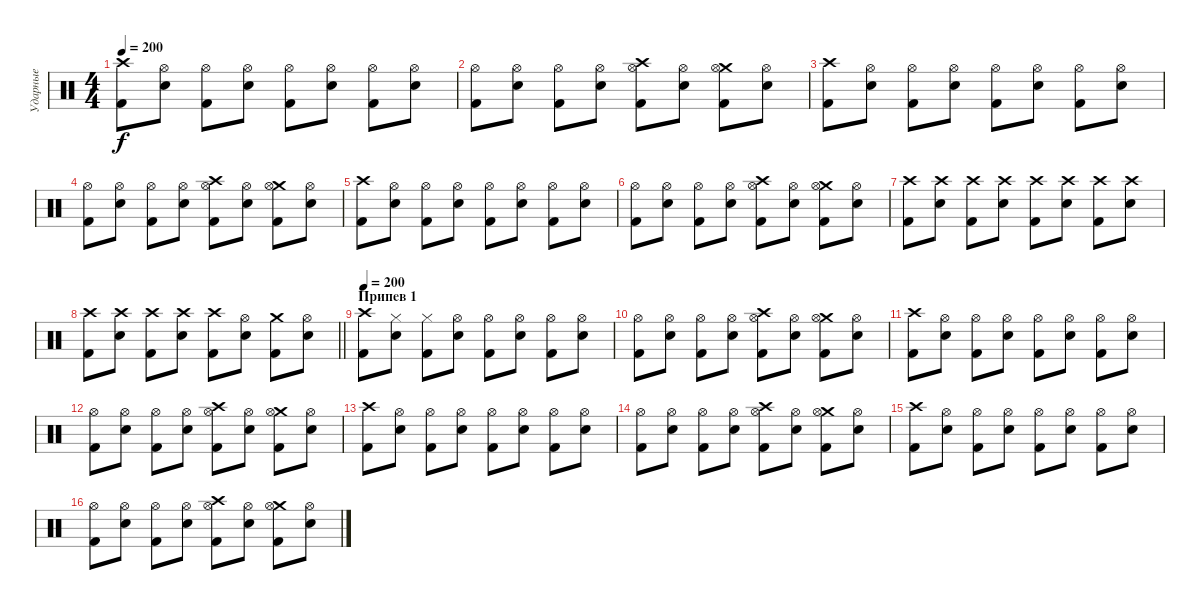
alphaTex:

\track ("Ударные" "Ударные") {instrument percussion}
\staff {score}
\articulation defaults
\ts (4 4)
\tempo 200
\clef neutral
\ks c
("Crash high (hit)" "Kick (hit) 2").8{dy f} ("Hi-Hat (open)" "Snare (hit) 2").8 ("Hi-Hat (open)" "Kick (hit) 2").8 ("Hi-Hat (open)" "Snare (hit) 2").8 ("Hi-Hat (open)" "Kick (hit) 2").8 ("Hi-Hat (open)" "Snare (hit) 2").8 ("Hi-Hat (open)" "Kick (hit) 2").8 ("Hi-Hat (open)" "Snare (hit) 2").8 |
("Hi-Hat (open)" "Kick (hit) 2").8 ("Hi-Hat (open)" "Snare (hit) 2").8 ("Hi-Hat (open)" "Kick (hit) 2").8 ("Hi-Hat (open)" "Snare (hit) 2").8 ("Crash high (hit)" "Hi-Hat (open)" "Kick (hit) 2").8 ("Hi-Hat (open)" "Snare (hit) 2").8 ("Crash medium (hit)" "Hi-Hat (open)" "Kick (hit) 2").8 ("Hi-Hat (open)" "Snare (hit) 2").8 |
("Crash high (hit)" "Kick (hit) 2").8 ("Hi-Hat (open)" "Snare (hit) 2").8 ("Hi-Hat (open)" "Kick (hit) 2").8 ("Hi-Hat (open)" "Snare (hit) 2").8 ("Hi-Hat (open)" "Kick (hit) 2").8 ("Hi-Hat (open)" "Snare (hit) 2").8 ("Hi-Hat (open)" "Kick (hit) 2").8 ("Hi-Hat (open)" "Snare (hit) 2").8 |
("Hi-Hat (open)" "Kick (hit) 2").8 ("Hi-Hat (open)" "Snare (hit) 2").8 ("Hi-Hat (open)" "Kick (hit) 2").8 ("Hi-Hat (open)" "Snare (hit) 2").8 ("Crash high (hit)" "Hi-Hat (open)" "Kick (hit) 2").8 ("Hi-Hat (open)" "Snare (hit) 2").8 ("Crash medium (hit)" "Hi-Hat (open)" "Kick (hit) 2").8 ("Hi-Hat (open)" "Snare (hit) 2").8 |
("Crash high (hit)" "Kick (hit) 2").8 ("Hi-Hat (open)" "Snare (hit) 2").8 ("Hi-Hat (open)" "Kick (hit) 2").8 ("Hi-Hat (open)" "Snare (hit) 2").8 ("Hi-Hat (open)" "Kick (hit) 2").8 ("Hi-Hat (open)" "Snare (hit) 2").8 ("Hi-Hat (open)" "Kick (hit) 2").8 ("Hi-Hat (open)" "Snare (hit) 2").8 |
("Hi-Hat (open)" "Kick (hit) 2").8 ("Hi-Hat (open)" "Snare (hit) 2").8 ("Hi-Hat (open)" "Kick (hit) 2").8 ("Hi-Hat (open)" "Snare (hit) 2").8 ("Crash high (hit)" "Hi-Hat (open)" "Kick (hit) 2").8 ("Hi-Hat (open)" "Snare (hit) 2").8 ("Crash medium (hit)" "Hi-Hat (open)" "Kick (hit) 2").8 ("Hi-Hat (open)" "Snare (hit) 2").8 |
("Crash high (hit)" "Kick (hit) 2").8 ("Crash high (hit)" "Snare (hit) 2").8 ("Crash high (hit)" "Kick (hit) 2").8 ("Crash high (hit)" "Snare (hit) 2").8 ("Crash high (hit)" "Kick (hit) 2").8 ("Crash high (hit)" "Snare (hit) 2").8 ("Crash high (hit)" "Kick (hit) 2").8 ("Crash high (hit)" "Snare (hit) 2").8 |
\barLineRight lightlight
("Crash high (hit)" "Kick (hit) 2").8 ("Crash high (hit)" "Snare (hit) 2").8 ("Crash high (hit)" "Kick (hit) 2").8 ("Crash high (hit)" "Snare (hit) 2").8 ("Crash high (hit)" "Kick (hit) 2").8 ("Hi-Hat (open)" "Snare (hit) 2").8 ("Crash medium (hit)" "Kick (hit) 2").8 ("Hi-Hat (open)" "Snare (hit) 2").8 |
\section ("" "Припев 1")
\tempo 200
("Crash high (hit)" "Kick (hit) 2").8 ("Hi-Hat (closed)" "Snare (hit) 2").8 ("Hi-Hat (closed)" "Kick (hit) 2").8 ("Hi-Hat (open)" "Snare (hit) 2").8 ("Hi-Hat (open)" "Kick (hit) 2").8 ("Hi-Hat (open)" "Snare (hit) 2").8 ("Hi-Hat (open)" "Kick (hit) 2").8 ("Hi-Hat (open)" "Snare (hit) 2").8 |
("Hi-Hat (open)" "Kick (hit) 2").8 ("Hi-Hat (open)" "Snare (hit) 2").8 ("Hi-Hat (open)" "Kick (hit) 2").8 ("Hi-Hat (open)" "Snare (hit) 2").8 ("Crash high (hit)" "Hi-Hat (open)" "Kick (hit) 2").8 ("Hi-Hat (open)" "Snare (hit) 2").8 ("Crash medium (hit)" "Hi-Hat (open)" "Kick (hit) 2").8 ("Hi-Hat (open)" "Snare (hit) 2").8 |
("Crash high (hit)" "Kick (hit) 2").8 ("Hi-Hat (open)" "Snare (hit) 2").8 ("Hi-Hat (open)" "Kick (hit) 2").8 ("Hi-Hat (open)" "Snare (hit) 2").8 ("Hi-Hat (open)" "Kick (hit) 2").8 ("Hi-Hat (open)" "Snare (hit) 2").8 ("Hi-Hat (open)" "Kick (hit) 2").8 ("Hi-Hat (open)" "Snare (hit) 2").8 |
("Hi-Hat (open)" "Kick (hit) 2").8 ("Hi-Hat (open)" "Snare (hit) 2").8 ("Hi-Hat (open)" "Kick (hit) 2").8 ("Hi-Hat (open)" "Snare (hit) 2").8 ("Crash high (hit)" "Hi-Hat (open)" "Kick (hit) 2").8 ("Hi-Hat (open)" "Snare (hit) 2").8 ("Crash medium (hit)" "Hi-Hat (open)" "Kick (hit) 2").8 ("Hi-Hat (open)" "Snare (hit) 2").8 |
("Crash high (hit)" "Kick (hit) 2").8 ("Hi-Hat (open)" "Snare (hit) 2").8 ("Hi-Hat (open)" "Kick (hit) 2").8 ("Hi-Hat (open)" "Snare (hit) 2").8 ("Hi-Hat (open)" "Kick (hit) 2").8 ("Hi-Hat (open)" "Snare (hit) 2").8 ("Hi-Hat (open)" "Kick (hit) 2").8 ("Hi-Hat (open)" "Snare (hit) 2").8 |
("Hi-Hat (open)" "Kick (hit) 2").8 ("Hi-Hat (open)" "Snare (hit) 2").8 ("Hi-Hat (open)" "Kick (hit) 2").8 ("Hi-Hat (open)" "Snare (hit) 2").8 ("Crash high (hit)" "Hi-Hat (open)" "Kick (hit) 2").8 ("Hi-Hat (open)" "Snare (hit) 2").8 ("Crash medium (hit)" "Hi-Hat (open)" "Kick (hit) 2").8 ("Hi-Hat (open)" "Snare (hit) 2").8 |
("Crash high (hit)" "Kick (hit) 2").8 ("Hi-Hat (open)" "Snare (hit) 2").8 ("Hi-Hat (open)" "Kick (hit) 2").8 ("Hi-Hat (open)" "Snare (hit) 2").8 ("Hi-Hat (open)" "Kick (hit) 2").8 ("Hi-Hat (open)" "Snare (hit) 2").8 ("Hi-Hat (open)" "Kick (hit) 2").8 ("Hi-Hat (open)" "Snare (hit) 2").8 |
("Hi-Hat (open)" "Kick (hit) 2").8 ("Hi-Hat (open)" "Snare (hit) 2").8 ("Hi-Hat (open)" "Kick (hit) 2").8 ("Hi-Hat (open)" "Snare (hit) 2").8 ("Crash high (hit)" "Hi-Hat (open)" "Kick (hit) 2").8 ("Hi-Hat (open)" "Snare (hit) 2").8 ("Crash medium (hit)" "Hi-Hat (open)" "Kick (hit) 2").8 ("Hi-Hat (open)" "Snare (hit) 2").8
